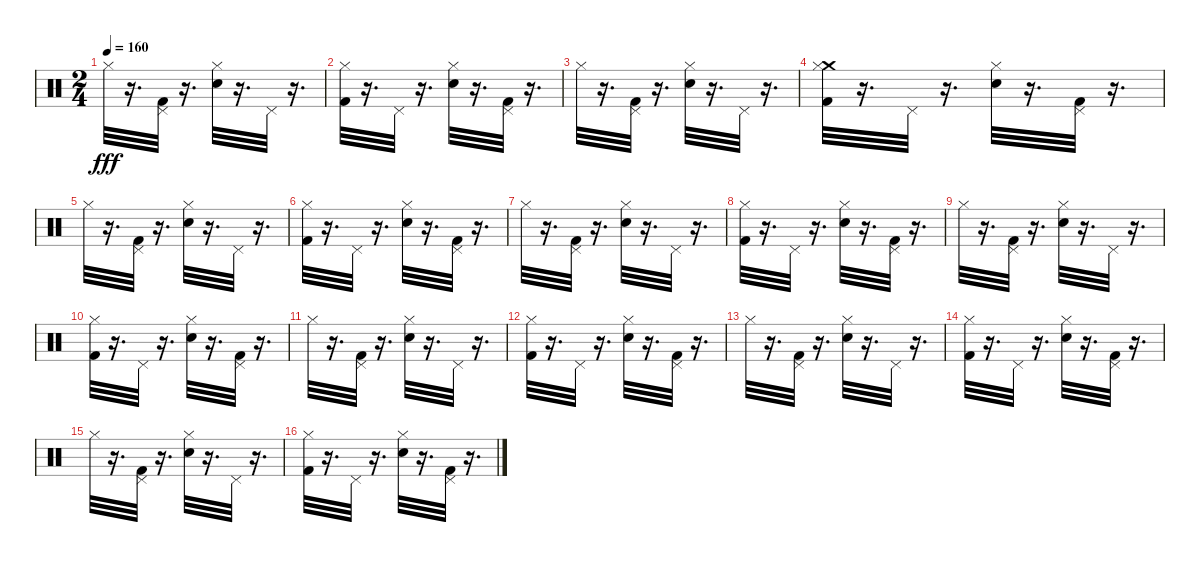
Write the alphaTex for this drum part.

\track "" {instrument percussion}
\staff {score}
\articulation defaults
\ts (2 4)
\tempo 160
\clef neutral
\ks c "Hi-Hat (closed)".32{dy fff}
r.16{d} ("Pedal Hi-Hat (hit)" "Kick (hit) 2").32 r.16{d} ("Hi-Hat (closed)" "Snare (hit) 2").32 r.16{d} "Pedal Hi-Hat (hit)".32 r.16{d} |
("Hi-Hat (closed)" "Kick (hit) 2").32 r.16{d} "Pedal Hi-Hat (hit)".32 r.16{d} ("Hi-Hat (closed)" "Snare (hit) 2").32 r.16{d} ("Pedal Hi-Hat (hit)" "Kick (hit) 2").32 r.16{d} |
"Hi-Hat (closed)".32 r.16{d} ("Pedal Hi-Hat (hit)" "Kick (hit) 2").32 r.16{d} ("Hi-Hat (closed)" "Snare (hit) 2").32 r.16{d} "Pedal Hi-Hat (hit)".32 r.16{d} |
("Crash medium (hit)" "Hi-Hat (closed)" "Kick (hit) 2").32 r.16{d} "Pedal Hi-Hat (hit)".32 r.16{d} ("Hi-Hat (closed)" "Snare (hit) 2").32 r.16{d} ("Pedal Hi-Hat (hit)" "Kick (hit) 2").32 r.16{d} |
"Hi-Hat (closed)".32 r.16{d} ("Pedal Hi-Hat (hit)" "Kick (hit) 2").32 r.16{d} ("Hi-Hat (closed)" "Snare (hit) 2").32 r.16{d} "Pedal Hi-Hat (hit)".32 r.16{d} |
("Hi-Hat (closed)" "Kick (hit) 2").32 r.16{d} "Pedal Hi-Hat (hit)".32 r.16{d} ("Hi-Hat (closed)" "Snare (hit) 2").32 r.16{d} ("Pedal Hi-Hat (hit)" "Kick (hit) 2").32 r.16{d} |
"Hi-Hat (closed)".32 r.16{d} ("Pedal Hi-Hat (hit)" "Kick (hit) 2").32 r.16{d} ("Hi-Hat (closed)" "Snare (hit) 2").32 r.16{d} "Pedal Hi-Hat (hit)".32 r.16{d} |
("Hi-Hat (closed)" "Kick (hit) 2").32 r.16{d} "Pedal Hi-Hat (hit)".32 r.16{d} ("Hi-Hat (closed)" "Snare (hit) 2").32 r.16{d} ("Pedal Hi-Hat (hit)" "Kick (hit) 2").32 r.16{d} |
"Hi-Hat (closed)".32 r.16{d} ("Pedal Hi-Hat (hit)" "Kick (hit) 2").32 r.16{d} ("Hi-Hat (closed)" "Snare (hit) 2").32 r.16{d} "Pedal Hi-Hat (hit)".32 r.16{d} |
("Hi-Hat (closed)" "Kick (hit) 2").32 r.16{d} "Pedal Hi-Hat (hit)".32 r.16{d} ("Hi-Hat (closed)" "Snare (hit) 2").32 r.16{d} ("Pedal Hi-Hat (hit)" "Kick (hit) 2").32 r.16{d} |
"Hi-Hat (closed)".32 r.16{d} ("Pedal Hi-Hat (hit)" "Kick (hit) 2").32 r.16{d} ("Hi-Hat (closed)" "Snare (hit) 2").32 r.16{d} "Pedal Hi-Hat (hit)".32 r.16{d} |
("Hi-Hat (closed)" "Kick (hit) 2").32 r.16{d} "Pedal Hi-Hat (hit)".32 r.16{d} ("Hi-Hat (closed)" "Snare (hit) 2").32 r.16{d} ("Pedal Hi-Hat (hit)" "Kick (hit) 2").32 r.16{d} |
"Hi-Hat (closed)".32 r.16{d} ("Pedal Hi-Hat (hit)" "Kick (hit) 2").32 r.16{d} ("Hi-Hat (closed)" "Snare (hit) 2").32 r.16{d} "Pedal Hi-Hat (hit)".32 r.16{d} |
("Hi-Hat (closed)" "Kick (hit) 2").32 r.16{d} "Pedal Hi-Hat (hit)".32 r.16{d} ("Hi-Hat (closed)" "Snare (hit) 2").32 r.16{d} ("Pedal Hi-Hat (hit)" "Kick (hit) 2").32 r.16{d} |
"Hi-Hat (closed)".32 r.16{d} ("Pedal Hi-Hat (hit)" "Kick (hit) 2").32 r.16{d} ("Hi-Hat (closed)" "Snare (hit) 2").32 r.16{d} "Pedal Hi-Hat (hit)".32 r.16{d} |
("Hi-Hat (closed)" "Kick (hit) 2").32 r.16{d} "Pedal Hi-Hat (hit)".32 r.16{d} ("Hi-Hat (closed)" "Snare (hit) 2").32 r.16{d} ("Pedal Hi-Hat (hit)" "Kick (hit) 2").32 r.16{d}
